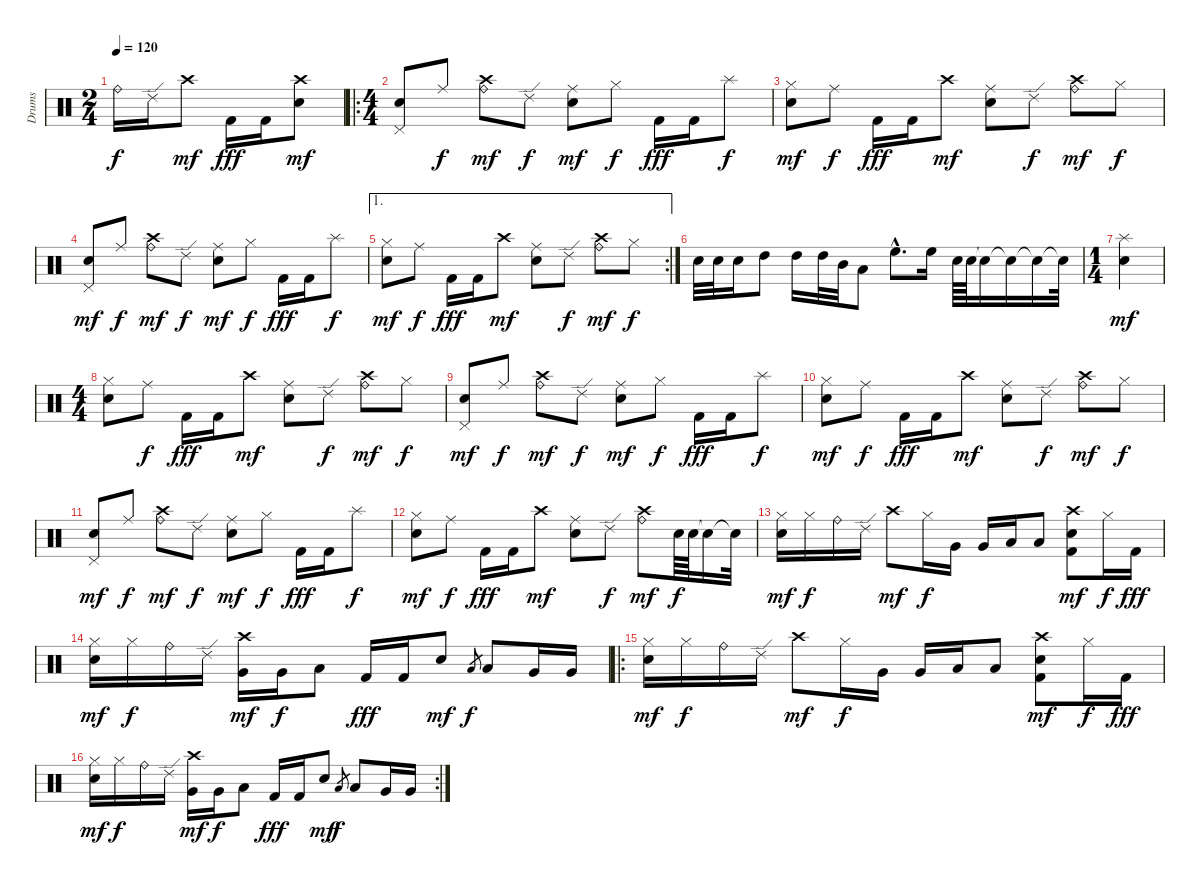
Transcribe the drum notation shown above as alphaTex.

\track ("Drums" "Drums") {instrument percussion}
\staff {score}
\articulation defaults
\ts (2 4)
\tempo 120
\clef neutral
\ks c "Ride (bell)".16{dy f} "Ride (edge) 2".16 "Crash high (hit)".8{dy mf} "Kick (hit) 2".16{dy fff} "Kick (hit) 2".16
("Crash high (hit)" "Electric Snare (hit)").8{dy mf} |
\ro
\ts (4 4)
("Pedal Hi-Hat (hit)" "Electric Snare (hit)").8 "Ride (middle)".8{dy f} ("Ride (bell)" "Crash high (hit)").8{dy mf} "Ride (edge) 2".8{dy f} ("Ride (middle)" "Electric Snare (hit)").8{dy mf} "Hi-Hat (closed)".8{dy f} "Kick (hit) 2".16{dy fff} "Kick (hit) 2".16 "Splash (hit)".8{dy f} |
("Hi-Hat (closed)" "Electric Snare (hit)").8{dy mf} "Ride (middle)".8{dy f} "Kick (hit) 2".16{dy fff} "Kick (hit) 2".16 "Crash high (hit)".8{dy mf} ("Ride (middle)" "Electric Snare (hit)").8 "Ride (edge) 2".8{dy f} ("Ride (bell)" "Crash high (hit)").8{dy mf} "Hi-Hat (closed)".8{dy f} |
("Pedal Hi-Hat (hit)" "Electric Snare (hit)").8{dy mf} "Ride (middle)".8{dy f} ("Ride (bell)" "Crash high (hit)").8{dy mf} "Ride (edge) 2".8{dy f} ("Ride (middle)" "Electric Snare (hit)").8{dy mf} "Hi-Hat (closed)".8{dy f} "Kick (hit) 2".16{dy fff} "Kick (hit) 2".16 "Splash (hit)".8{dy f} |
\ae 1
\rc 2
("Hi-Hat (closed)" "Electric Snare (hit)").8{dy mf} "Ride (middle)".8{dy f} "Kick (hit) 2".16{dy fff} "Kick (hit) 2".16 "Crash high (hit)".8{dy mf} ("Ride (middle)" "Electric Snare (hit)").8 "Ride (edge) 2".8{dy f} ("Ride (bell)" "Crash high (hit)").8{dy mf} "Hi-Hat (closed)".8{dy f} |
"Electric Snare (hit)".32 "Electric Snare (hit)".32 "Electric Snare (hit)".16 "High Tom (hit)".8 "High Tom (hit)".16 "High Tom (hit)".32 "Mid Tom (hit)".32 "Low Tom (hit)".8 "High Floor Tom (hit)"{hac}.8{d} "High Floor Tom (hit)".16 "Electric Snare (hit)".64 "Electric Snare (hit)".64 "Snare (hit)"{t}.16 "Snare (hit)"{t}.16 "Snare (hit)"{t}.16 "Snare (hit)"{t}.32 |
\ts (1 4)
("Electric Snare (hit)" "Splash (hit)").4{dy mf} |
\ts (4 4)
("Hi-Hat (closed)" "Electric Snare (hit)").8 "Ride (middle)".8{dy f} "Kick (hit) 2".16{dy fff} "Kick (hit) 2".16 "Crash high (hit)".8{dy mf} ("Ride (middle)" "Electric Snare (hit)").8 "Ride (edge) 2".8{dy f} ("Ride (bell)" "Crash high (hit)").8{dy mf} "Hi-Hat (closed)".8{dy f} |
("Pedal Hi-Hat (hit)" "Electric Snare (hit)").8{dy mf} "Ride (middle)".8{dy f} ("Ride (bell)" "Crash high (hit)").8{dy mf} "Ride (edge) 2".8{dy f} ("Ride (middle)" "Electric Snare (hit)").8{dy mf} "Hi-Hat (closed)".8{dy f} "Kick (hit) 2".16{dy fff} "Kick (hit) 2".16 "Splash (hit)".8{dy f} |
("Hi-Hat (closed)" "Electric Snare (hit)").8{dy mf} "Ride (middle)".8{dy f} "Kick (hit) 2".16{dy fff} "Kick (hit) 2".16 "Crash high (hit)".8{dy mf} ("Ride (middle)" "Electric Snare (hit)").8 "Ride (edge) 2".8{dy f} ("Ride (bell)" "Crash high (hit)").8{dy mf} "Hi-Hat (closed)".8{dy f} |
("Pedal Hi-Hat (hit)" "Electric Snare (hit)").8{dy mf} "Ride (middle)".8{dy f} ("Ride (bell)" "Crash high (hit)").8{dy mf} "Ride (edge) 2".8{dy f} ("Ride (middle)" "Electric Snare (hit)").8{dy mf} "Hi-Hat (closed)".8{dy f} "Kick (hit) 2".16{dy fff} "Kick (hit) 2".16 "Splash (hit)".8{dy f} |
("Hi-Hat (closed)" "Electric Snare (hit)").8{dy mf} "Ride (middle)".8{dy f} "Kick (hit) 2".16{dy fff} "Kick (hit) 2".16 "Crash high (hit)".8{dy mf} ("Ride (middle)" "Electric Snare (hit)").8 "Ride (edge) 2".8{dy f} ("Ride (bell)" "Crash high (hit)").8{dy mf} "Electric Snare (hit)".64{dy f} "Electric Snare (hit)".64 "Snare (hit)"{t}.16 "Snare (hit)"{t}.32 |
("Hi-Hat (closed)" "Electric Snare (hit)").16{dy mf} "Hi-Hat (closed)".16{dy f} "Ride (bell)".16 "Ride (edge) 2".16 "Crash high (hit)".8{dy mf} "Hi-Hat (closed)".16{dy f} "Very Low Tom (hit)".16 "Very Low Tom (hit)".16 "Low Tom (hit)".16 "Low Tom (hit)".8 ("Electric Snare (hit)" "Kick (hit) 2" "Crash high (hit)").8{dy mf} "Hi-Hat (closed)".16{dy f} "Kick (hit) 2".16{dy fff} |
("Electric Snare (hit)" "Hi-Hat (closed)").16{dy mf} "Hi-Hat (closed)".16{dy f} "Ride (bell)".16 "Ride (edge) 2".16 ("Very Low Tom (hit)" "Crash high (hit)").16{dy mf} "Very Low Tom (hit)".16{dy f} "Low Tom (hit)".8 "Kick (hit) 2".16{dy fff} "Kick (hit) 2".16 "Electric Snare (hit)".8{dy mf} "Low Tom (hit)".8{gr dy f} "Low Tom (hit)".8 "Very Low Tom (hit)".16 "Very Low Tom (hit)".16 |
\ro
("Hi-Hat (closed)" "Electric Snare (hit)").16{dy mf} "Hi-Hat (closed)".16{dy f} "Ride (bell)".16 "Ride (edge) 2".16 "Crash high (hit)".8{dy mf} "Hi-Hat (closed)".16{dy f} "Very Low Tom (hit)".16 "Very Low Tom (hit)".16 "Low Tom (hit)".16 "Low Tom (hit)".8 ("Electric Snare (hit)" "Kick (hit) 2" "Crash high (hit)").8{dy mf} "Hi-Hat (closed)".16{dy f} "Kick (hit) 2".16{dy fff} |
\rc 2
("Electric Snare (hit)" "Hi-Hat (closed)").16{dy mf} "Hi-Hat (closed)".16{dy f} "Ride (bell)".16 "Ride (edge) 2".16 ("Very Low Tom (hit)" "Crash high (hit)").16{dy mf} "Very Low Tom (hit)".16{dy f} "Low Tom (hit)".8 "Kick (hit) 2".16{dy fff} "Kick (hit) 2".16 "Electric Snare (hit)".8{dy mf} "Low Tom (hit)".8{gr dy f} "Low Tom (hit)".8 "Very Low Tom (hit)".16 "Very Low Tom (hit)".16
